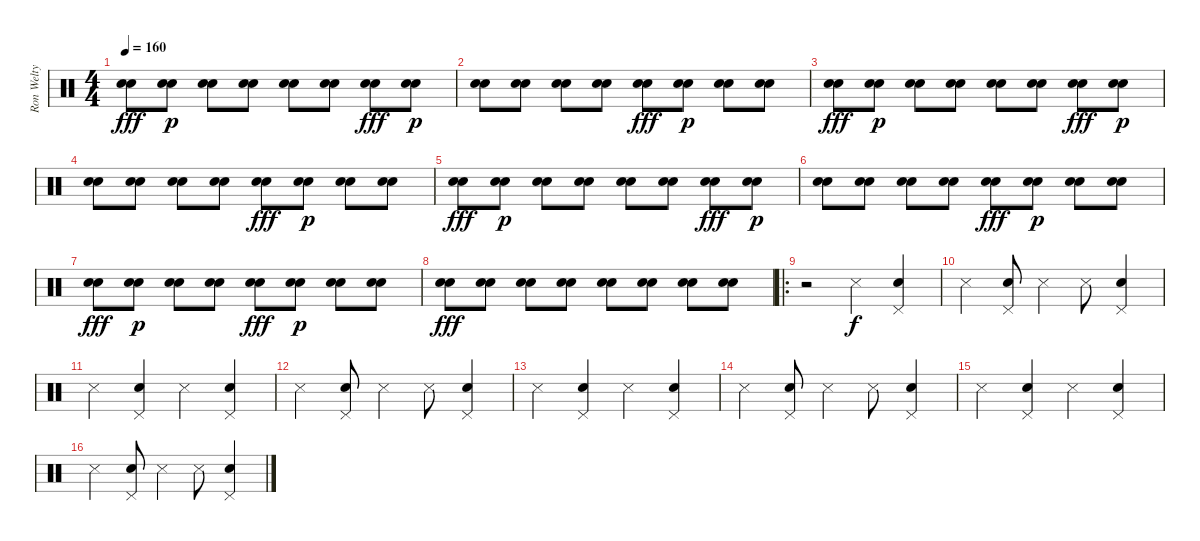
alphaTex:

\track ("Ron Welty" "Ron Welty") {instrument percussion}
\staff {score}
\articulation defaults
\ts (4 4)
\tempo 160
\clef neutral
\ks c
("Snare (hit) 2" "Electric Snare (hit)").8{dy fff} ("Snare (hit) 2" "Electric Snare (hit)").8{dy p} ("Snare (hit) 2" "Electric Snare (hit)").8 ("Snare (hit) 2" "Electric Snare (hit)").8 ("Snare (hit) 2" "Electric Snare (hit)").8 ("Snare (hit) 2" "Electric Snare (hit)").8 ("Snare (hit) 2" "Electric Snare (hit)").8{dy fff} ("Snare (hit) 2" "Electric Snare (hit)").8{dy p} |
("Snare (hit) 2" "Electric Snare (hit)").8 ("Snare (hit) 2" "Electric Snare (hit)").8 ("Snare (hit) 2" "Electric Snare (hit)").8 ("Snare (hit) 2" "Electric Snare (hit)").8 ("Snare (hit) 2" "Electric Snare (hit)").8{dy fff} ("Snare (hit) 2" "Electric Snare (hit)").8{dy p} ("Snare (hit) 2" "Electric Snare (hit)").8 ("Snare (hit) 2" "Electric Snare (hit)").8 |
("Snare (hit) 2" "Electric Snare (hit)").8{dy fff} ("Snare (hit) 2" "Electric Snare (hit)").8{dy p} ("Snare (hit) 2" "Electric Snare (hit)").8 ("Snare (hit) 2" "Electric Snare (hit)").8 ("Snare (hit) 2" "Electric Snare (hit)").8 ("Snare (hit) 2" "Electric Snare (hit)").8 ("Snare (hit) 2" "Electric Snare (hit)").8{dy fff} ("Snare (hit) 2" "Electric Snare (hit)").8{dy p} |
("Snare (hit) 2" "Electric Snare (hit)").8 ("Snare (hit) 2" "Electric Snare (hit)").8 ("Snare (hit) 2" "Electric Snare (hit)").8 ("Snare (hit) 2" "Electric Snare (hit)").8 ("Snare (hit) 2" "Electric Snare (hit)").8{dy fff} ("Snare (hit) 2" "Electric Snare (hit)").8{dy p} ("Snare (hit) 2" "Electric Snare (hit)").8 ("Snare (hit) 2" "Electric Snare (hit)").8 |
("Snare (hit) 2" "Electric Snare (hit)").8{dy fff} ("Snare (hit) 2" "Electric Snare (hit)").8{dy p} ("Snare (hit) 2" "Electric Snare (hit)").8 ("Snare (hit) 2" "Electric Snare (hit)").8 ("Snare (hit) 2" "Electric Snare (hit)").8 ("Snare (hit) 2" "Electric Snare (hit)").8 ("Snare (hit) 2" "Electric Snare (hit)").8{dy fff} ("Snare (hit) 2" "Electric Snare (hit)").8{dy p} |
("Snare (hit) 2" "Electric Snare (hit)").8 ("Snare (hit) 2" "Electric Snare (hit)").8 ("Snare (hit) 2" "Electric Snare (hit)").8 ("Snare (hit) 2" "Electric Snare (hit)").8 ("Snare (hit) 2" "Electric Snare (hit)").8{dy fff} ("Snare (hit) 2" "Electric Snare (hit)").8{dy p} ("Snare (hit) 2" "Electric Snare (hit)").8 ("Snare (hit) 2" "Electric Snare (hit)").8 |
("Snare (hit) 2" "Electric Snare (hit)").8{dy fff} ("Snare (hit) 2" "Electric Snare (hit)").8{dy p} ("Snare (hit) 2" "Electric Snare (hit)").8 ("Snare (hit) 2" "Electric Snare (hit)").8 ("Snare (hit) 2" "Electric Snare (hit)").8{dy fff} ("Snare (hit) 2" "Electric Snare (hit)").8{dy p} ("Snare (hit) 2" "Electric Snare (hit)").8 ("Snare (hit) 2" "Electric Snare (hit)").8 |
("Snare (hit) 2" "Electric Snare (hit)").8{dy fff} ("Snare (hit) 2" "Electric Snare (hit)").8 ("Snare (hit) 2" "Electric Snare (hit)").8 ("Snare (hit) 2" "Electric Snare (hit)").8 ("Snare (hit) 2" "Electric Snare (hit)").8 ("Snare (hit) 2" "Electric Snare (hit)").8 ("Snare (hit) 2" "Electric Snare (hit)").8 ("Snare (hit) 2" "Electric Snare (hit)").8 |
\ro
r.2 "Metronome (hit)".4{dy f} ("Pedal Hi-Hat (hit)" "Snare (hit) 2").4 |
"Metronome (hit)".4 ("Pedal Hi-Hat (hit)" "Snare (hit) 2").8 "Metronome (hit)".4 "Metronome (hit)".8 ("Pedal Hi-Hat (hit)" "Snare (hit) 2").4 |
"Metronome (hit)".4 ("Pedal Hi-Hat (hit)" "Snare (hit) 2").4 "Metronome (hit)".4 ("Pedal Hi-Hat (hit)" "Snare (hit) 2").4 |
"Metronome (hit)".4 ("Pedal Hi-Hat (hit)" "Snare (hit) 2").8 "Metronome (hit)".4 "Metronome (hit)".8 ("Pedal Hi-Hat (hit)" "Snare (hit) 2").4 |
"Metronome (hit)".4 ("Pedal Hi-Hat (hit)" "Snare (hit) 2").4 "Metronome (hit)".4 ("Pedal Hi-Hat (hit)" "Snare (hit) 2").4 |
"Metronome (hit)".4 ("Pedal Hi-Hat (hit)" "Snare (hit) 2").8 "Metronome (hit)".4 "Metronome (hit)".8 ("Pedal Hi-Hat (hit)" "Snare (hit) 2").4 |
"Metronome (hit)".4 ("Pedal Hi-Hat (hit)" "Snare (hit) 2").4 "Metronome (hit)".4 ("Pedal Hi-Hat (hit)" "Snare (hit) 2").4 |
"Metronome (hit)".4 ("Pedal Hi-Hat (hit)" "Snare (hit) 2").8 "Metronome (hit)".4 "Metronome (hit)".8 ("Pedal Hi-Hat (hit)" "Snare (hit) 2").4
